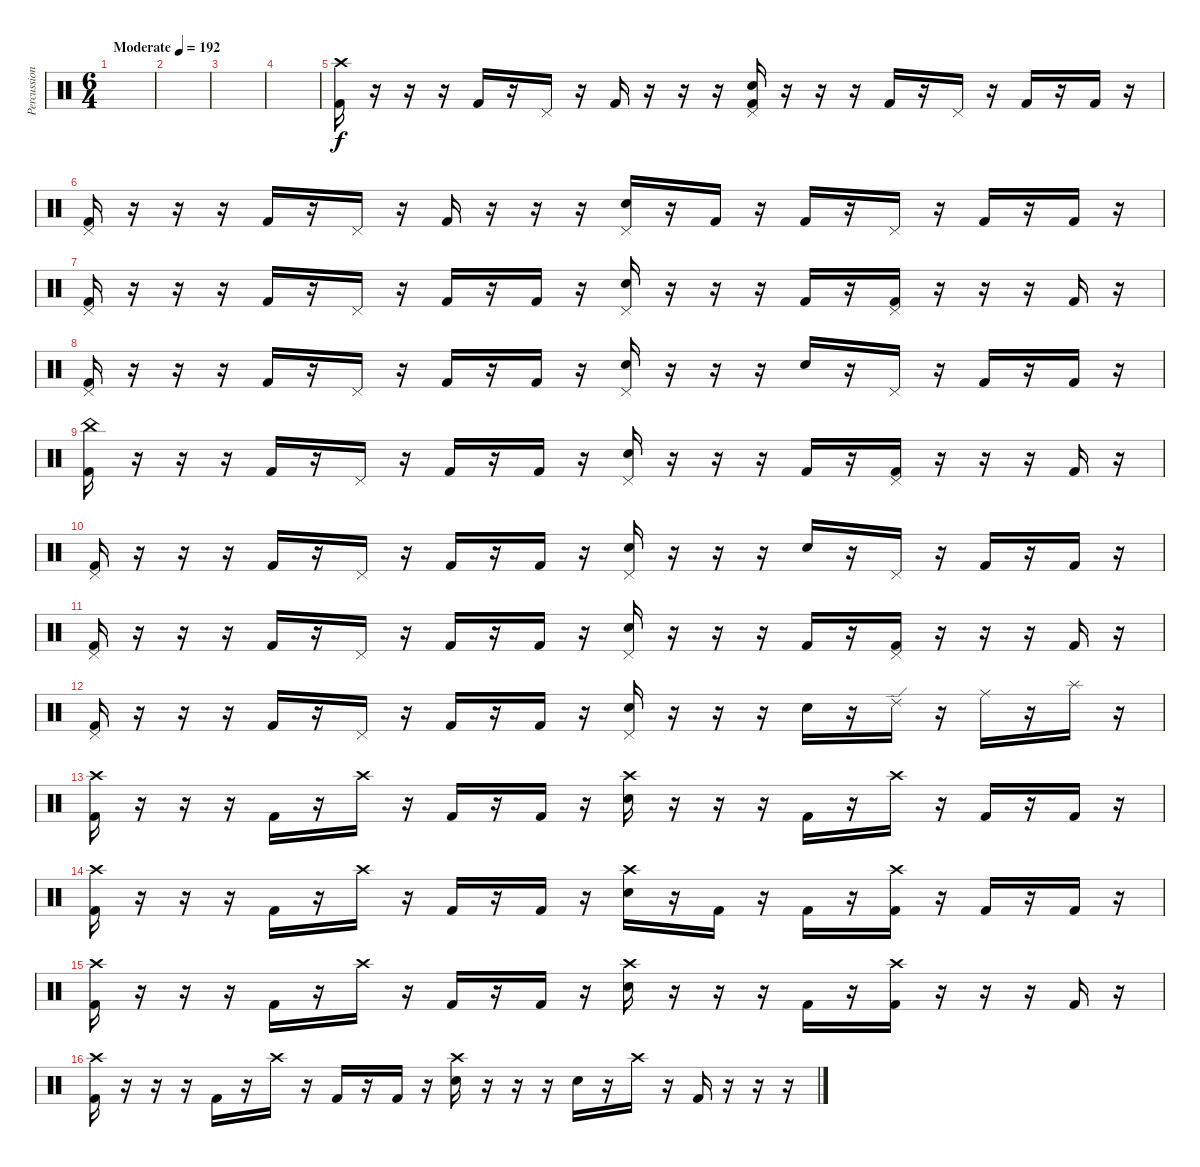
\track ("Percussion" "Percussion") {instrument percussion}
\staff {score}
\articulation defaults
\ts (6 4)
\tempo (192 "Moderate")
\clef neutral
\ks c
|
|
|
|
("Crash high (hit)" "Kick (hit) 2").16 r.16 r.16 r.16 "Kick (hit) 2".16 r.16 "Pedal Hi-Hat (hit)".16 r.16 "Kick (hit) 2".16 r.16 r.16 r.16 ("Pedal Hi-Hat (hit)" "Snare (hit) 2" "Kick (hit) 2").16 r.16 r.16 r.16 "Kick (hit) 2".16 r.16 "Pedal Hi-Hat (hit)".16 r.16 "Kick (hit) 2".16 r.16 "Kick (hit) 2".16 r.16 |
("Pedal Hi-Hat (hit)" "Kick (hit) 2").16 r.16 r.16 r.16 "Kick (hit) 2".16 r.16 "Pedal Hi-Hat (hit)".16 r.16 "Kick (hit) 2".16 r.16 r.16 r.16 ("Pedal Hi-Hat (hit)" "Snare (hit) 2").16 r.16 "Kick (hit) 2".16 r.16 "Kick (hit) 2".16 r.16 "Pedal Hi-Hat (hit)".16 r.16 "Kick (hit) 2".16 r.16 "Kick (hit) 2".16 r.16 |
("Pedal Hi-Hat (hit)" "Kick (hit) 2").16 r.16 r.16 r.16 "Kick (hit) 2".16 r.16 "Pedal Hi-Hat (hit)".16 r.16 "Kick (hit) 2".16 r.16 "Kick (hit) 2".16 r.16 ("Pedal Hi-Hat (hit)" "Snare (hit) 2").16 r.16 r.16 r.16 "Kick (hit) 2".16 r.16 ("Pedal Hi-Hat (hit)" "Kick (hit) 2").16 r.16 r.16 r.16 "Kick (hit) 2".16 r.16 |
("Pedal Hi-Hat (hit)" "Kick (hit) 2").16 r.16 r.16 r.16 "Kick (hit) 2".16 r.16 "Pedal Hi-Hat (hit)".16 r.16 "Kick (hit) 2".16 r.16 "Kick (hit) 2".16 r.16 ("Pedal Hi-Hat (hit)" "Snare (hit) 2").16 r.16 r.16 r.16 "Snare (hit) 2".16 r.16 "Pedal Hi-Hat (hit)".16 r.16 "Kick (hit) 2".16 r.16 "Kick (hit) 2".16 r.16 |
("China (hit)" "Kick (hit) 2").16 r.16 r.16 r.16 "Kick (hit) 2".16 r.16 "Pedal Hi-Hat (hit)".16 r.16 "Kick (hit) 2".16 r.16 "Kick (hit) 2".16 r.16 ("Pedal Hi-Hat (hit)" "Snare (hit) 2").16 r.16 r.16 r.16 "Kick (hit) 2".16 r.16 ("Pedal Hi-Hat (hit)" "Kick (hit) 2").16 r.16 r.16 r.16 "Kick (hit) 2".16 r.16 |
("Pedal Hi-Hat (hit)" "Kick (hit) 2").16 r.16 r.16 r.16 "Kick (hit) 2".16 r.16 "Pedal Hi-Hat (hit)".16 r.16 "Kick (hit) 2".16 r.16 "Kick (hit) 2".16 r.16 ("Pedal Hi-Hat (hit)" "Snare (hit) 2").16 r.16 r.16 r.16 "Snare (hit) 2".16 r.16 "Pedal Hi-Hat (hit)".16 r.16 "Kick (hit) 2".16 r.16 "Kick (hit) 2".16 r.16 |
("Pedal Hi-Hat (hit)" "Kick (hit) 2").16 r.16 r.16 r.16 "Kick (hit) 2".16 r.16 "Pedal Hi-Hat (hit)".16 r.16 "Kick (hit) 2".16 r.16 "Kick (hit) 2".16 r.16 ("Pedal Hi-Hat (hit)" "Snare (hit) 2").16 r.16 r.16 r.16 "Kick (hit) 2".16 r.16 ("Pedal Hi-Hat (hit)" "Kick (hit) 2").16 r.16 r.16 r.16 "Kick (hit) 2".16 r.16 |
("Pedal Hi-Hat (hit)" "Kick (hit) 2").16 r.16 r.16 r.16 "Kick (hit) 2".16 r.16 "Pedal Hi-Hat (hit)".16 r.16 "Kick (hit) 2".16 r.16 "Kick (hit) 2".16 r.16 ("Pedal Hi-Hat (hit)" "Snare (hit) 2").16 r.16 r.16 r.16 "Snare (hit) 2".16 r.16 "Ride (edge) 2".16 r.16 "Ride (middle)".16 r.16 "Splash (hit)".16 r.16 |
("Crash high (hit)" "Kick (hit) 2").16 r.16 r.16 r.16 "Kick (hit) 2".16 r.16 "Crash high (hit)".16 r.16 "Kick (hit) 2".16 r.16 "Kick (hit) 2".16 r.16 ("Crash high (hit)" "Snare (hit) 2").16 r.16 r.16 r.16 "Kick (hit) 2".16 r.16 "Crash high (hit)".16 r.16 "Kick (hit) 2".16 r.16 "Kick (hit) 2".16 r.16 |
("Crash high (hit)" "Kick (hit) 2").16 r.16 r.16 r.16 "Kick (hit) 2".16 r.16 "Crash high (hit)".16 r.16 "Kick (hit) 2".16 r.16 "Kick (hit) 2".16 r.16 ("Crash high (hit)" "Snare (hit) 2").16 r.16 "Kick (hit) 2".16 r.16 "Kick (hit) 2".16 r.16 ("Crash high (hit)" "Kick (hit) 2").16 r.16 "Kick (hit) 2".16 r.16 "Kick (hit) 2".16 r.16 |
("Crash high (hit)" "Kick (hit) 2").16 r.16 r.16 r.16 "Kick (hit) 2".16 r.16 "Crash high (hit)".16 r.16 "Kick (hit) 2".16 r.16 "Kick (hit) 2".16 r.16 ("Crash high (hit)" "Snare (hit) 2").16 r.16 r.16 r.16 "Kick (hit) 2".16 r.16 ("Crash high (hit)" "Kick (hit) 2").16 r.16 r.16 r.16 "Kick (hit) 2".16 r.16 |
("Crash high (hit)" "Kick (hit) 2").16 r.16 r.16 r.16 "Kick (hit) 2".16 r.16 "Crash high (hit)".16 r.16 "Kick (hit) 2".16 r.16 "Kick (hit) 2".16 r.16 ("Crash high (hit)" "Snare (hit) 2").16 r.16 r.16 r.16 "Snare (hit) 2".16 r.16 "Crash high (hit)".16 r.16 "Kick (hit) 2".16 r.16 r.16 r.16
